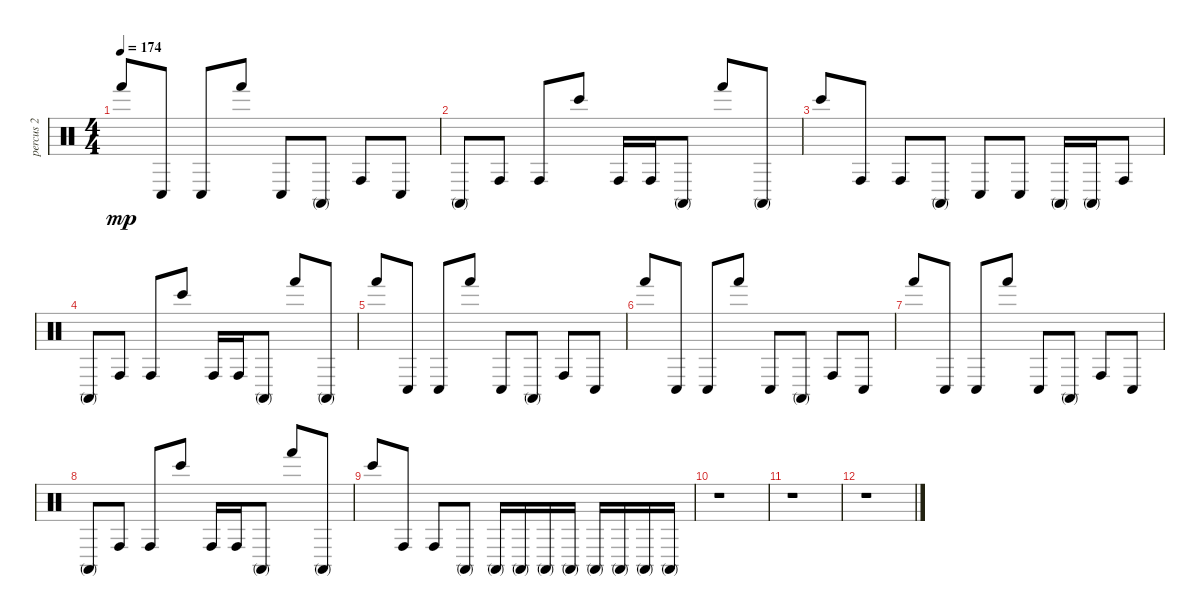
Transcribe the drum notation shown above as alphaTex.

\track ("percus 2" "percus 2") {instrument percussion}
\staff {score}
\articulation defaults
\ts (4 4)
\tempo 174
\clef neutral
\ks c "Hand (hit)".8{dy mp} "Conga low (hit)".8 "Conga low (hit)".8 "Hand (hit)".8 "Conga low (hit)".8 "Conga high (mute)".8 "Conga high (hit)".8 "Conga low (hit)".8
|
"Conga high (mute)".8 "Conga high (hit)".8 "Conga high (hit)".8 "Bongo High (hit)".8 "Conga high (hit)".16 "Conga high (hit)".16 "Conga high (mute)".8 "Hand (hit)".8 "Conga high (mute)".8 |
"Bongo High (hit)".8 "Conga high (hit)".8 "Conga high (hit)".8 "Conga high (mute)".8 "Conga low (hit)".8 "Conga low (hit)".8 "Conga high (mute)".16 "Conga high (mute)".16 "Conga high (hit)".8 |
"Conga high (mute)".8 "Conga high (hit)".8 "Conga high (hit)".8 "Bongo High (hit)".8 "Conga high (hit)".16 "Conga high (hit)".16 "Conga high (mute)".8 "Hand (hit)".8 "Conga high (mute)".8 |
"Hand (hit)".8 "Conga low (hit)".8 "Conga low (hit)".8 "Hand (hit)".8 "Conga low (hit)".8 "Conga high (mute)".8 "Conga high (hit)".8 "Conga low (hit)".8 |
"Hand (hit)".8 "Conga low (hit)".8 "Conga low (hit)".8 "Hand (hit)".8 "Conga low (hit)".8 "Conga high (mute)".8 "Conga high (hit)".8 "Conga low (hit)".8 |
"Hand (hit)".8 "Conga low (hit)".8 "Conga low (hit)".8 "Hand (hit)".8 "Conga low (hit)".8 "Conga high (mute)".8 "Conga high (hit)".8 "Conga low (hit)".8 |
"Conga high (mute)".8 "Conga high (hit)".8 "Conga high (hit)".8 "Bongo High (hit)".8 "Conga high (hit)".16 "Conga high (hit)".16 "Conga high (mute)".8 "Hand (hit)".8 "Conga high (mute)".8 |
"Bongo High (hit)".8 "Conga high (hit)".8 "Conga high (hit)".8 "Conga high (mute)".8 "Conga high (mute)".16 "Conga high (mute)".16 "Conga high (mute)".16 "Conga high (mute)".16 "Conga high (mute)".16 "Conga high (mute)".16 "Conga high (mute)".16 "Conga high (mute)".16 |
r.1 |
r.1 |
r.1
